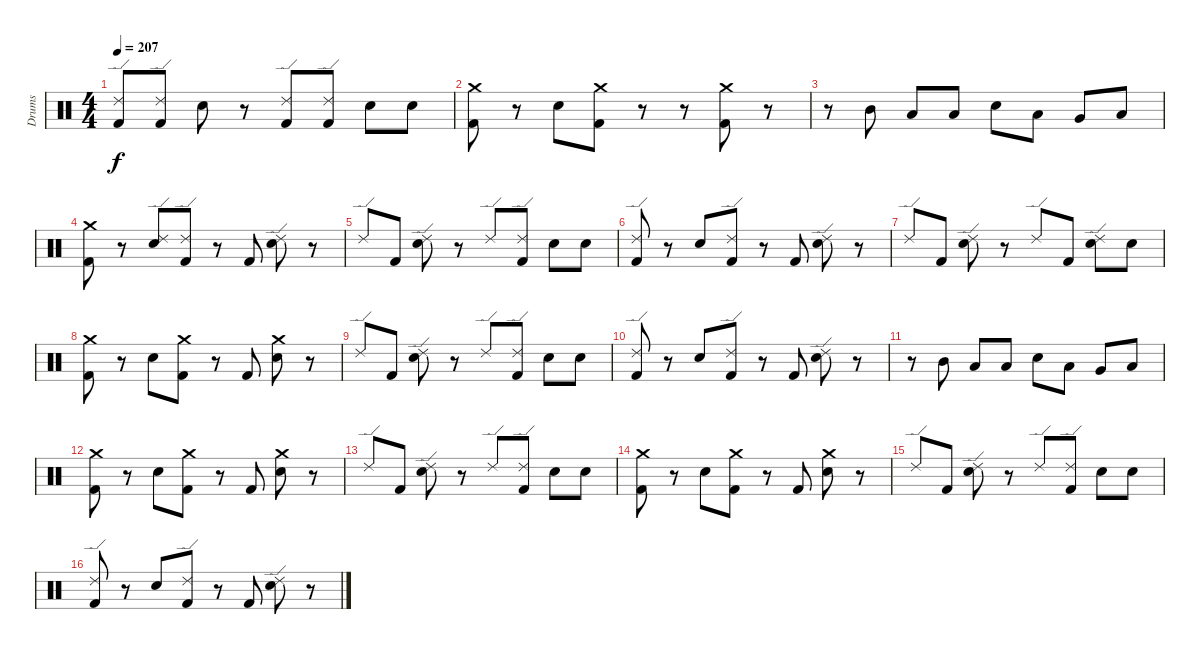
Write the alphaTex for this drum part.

\track ("Drums" "Drums") {instrument percussion}
\staff {score}
\articulation defaults
\ts (4 4)
\tempo 207
\clef neutral
\ks c
("Ride (edge) 2" "Kick (hit) 2").8{dy f} ("Ride (edge) 2" "Kick (hit) 2").8 "Snare (hit) 2".8 r.8 ("Ride (edge) 2" "Kick (hit) 2").8 ("Ride (edge) 2" "Kick (hit) 2").8 "Snare (hit) 2".8 "Snare (hit) 2".8 |
("Crash medium (hit)" "Kick (hit) 2").8 r.8 "Snare (hit) 2".8 ("Crash medium (hit)" "Kick (hit) 2").8 r.8 r.8 ("Crash medium (hit)" "Kick (hit) 2").8 r.8 |
r.8 "Mid Tom (hit)".8 "Low Tom (hit)".8 "Low Tom (hit)".8 "Snare (hit) 2".8 "Low Tom (hit)".8 "Very Low Tom (hit)".8 "Low Floor Tom (hit)".8 |
("Crash medium (hit)" "Kick (hit) 2").8 r.8 ("Ride (edge) 2" "Snare (hit) 2").8 ("Ride (edge) 2" "Kick (hit) 2").8 r.8 "Kick (hit) 2".8 ("Ride (edge) 2" "Snare (hit) 2").8 r.8 |
"Ride (edge) 2".8 "Kick (hit) 2".8 ("Ride (edge) 2" "Snare (hit) 2").8 r.8 "Ride (edge) 2".8 ("Ride (edge) 2" "Kick (hit) 2").8 "Snare (hit) 2".8 "Snare (hit) 2".8 |
("Ride (edge) 2" "Kick (hit) 2").8 r.8 "Snare (hit) 2".8 ("Ride (edge) 2" "Kick (hit) 2").8 r.8 "Kick (hit) 2".8 ("Ride (edge) 2" "Snare (hit) 2").8 r.8 |
"Ride (edge) 2".8 "Kick (hit) 2".8 ("Ride (edge) 2" "Snare (hit) 2").8 r.8 "Ride (edge) 2".8 "Kick (hit) 2".8 ("Ride (edge) 2" "Snare (hit) 2").8 "Snare (hit) 2".8 |
("Crash medium (hit)" "Kick (hit) 2").8 r.8 "Snare (hit) 2".8 ("Crash medium (hit)" "Kick (hit) 2").8 r.8 "Kick (hit) 2".8 ("Crash medium (hit)" "Snare (hit) 2").8 r.8 |
"Ride (edge) 2".8 "Kick (hit) 2".8 ("Ride (edge) 2" "Snare (hit) 2").8 r.8 "Ride (edge) 2".8 ("Ride (edge) 2" "Kick (hit) 2").8 "Snare (hit) 2".8 "Snare (hit) 2".8 |
("Ride (edge) 2" "Kick (hit) 2").8 r.8 "Snare (hit) 2".8 ("Ride (edge) 2" "Kick (hit) 2").8 r.8 "Kick (hit) 2".8 ("Ride (edge) 2" "Snare (hit) 2").8 r.8 |
r.8 "Mid Tom (hit)".8 "Low Tom (hit)".8 "Low Tom (hit)".8 "Snare (hit) 2".8 "Low Tom (hit)".8 "Very Low Tom (hit)".8 "Low Floor Tom (hit)".8 |
("Crash medium (hit)" "Kick (hit) 2").8 r.8 "Snare (hit) 2".8 ("Crash medium (hit)" "Kick (hit) 2").8 r.8 "Kick (hit) 2".8 ("Crash medium (hit)" "Snare (hit) 2").8 r.8 |
"Ride (edge) 2".8 "Kick (hit) 2".8 ("Ride (edge) 2" "Snare (hit) 2").8 r.8 "Ride (edge) 2".8 ("Ride (edge) 2" "Kick (hit) 2").8 "Snare (hit) 2".8 "Snare (hit) 2".8 |
("Crash medium (hit)" "Kick (hit) 2").8 r.8 "Snare (hit) 2".8 ("Crash medium (hit)" "Kick (hit) 2").8 r.8 "Kick (hit) 2".8 ("Crash medium (hit)" "Snare (hit) 2").8 r.8 |
"Ride (edge) 2".8 "Kick (hit) 2".8 ("Ride (edge) 2" "Snare (hit) 2").8 r.8 "Ride (edge) 2".8 ("Ride (edge) 2" "Kick (hit) 2").8 "Snare (hit) 2".8 "Snare (hit) 2".8 |
("Ride (edge) 2" "Kick (hit) 2").8 r.8 "Snare (hit) 2".8 ("Ride (edge) 2" "Kick (hit) 2").8 r.8 "Kick (hit) 2".8 ("Ride (edge) 2" "Snare (hit) 2").8 r.8
